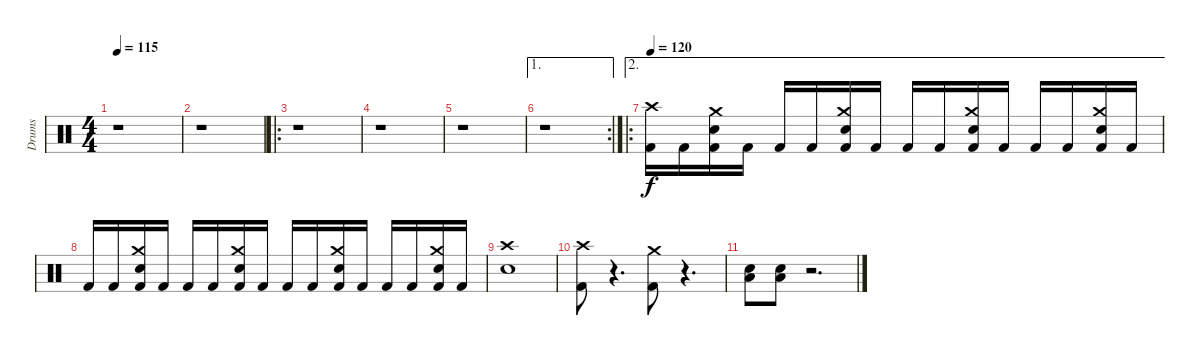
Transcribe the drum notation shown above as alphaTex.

\track ("Drums" "Drums") {instrument percussion}
\staff {score}
\articulation defaults
\ts (4 4)
\tempo 115
\clef neutral
\ks c
r.1{dy f} |
r.1 |
\ro
r.1 |
r.1 |
r.1 |
\ae 1
\rc 2
r.1 |
\ae 2
\ro
\tempo 120
("Kick (hit) 2" "Crash high (hit)").16 "Kick (hit) 2".16 ("Kick (hit) 2" "Crash medium (hit)" "Electric Snare (hit)").16 "Kick (hit) 2".16 "Kick (hit) 2".16 "Kick (hit) 2".16 ("Kick (hit) 2" "Crash medium (hit)" "Electric Snare (hit)").16 "Kick (hit) 2".16 "Kick (hit) 2".16 "Kick (hit) 2".16 ("Kick (hit) 2" "Crash medium (hit)" "Electric Snare (hit)").16 "Kick (hit) 2".16 "Kick (hit) 2".16 "Kick (hit) 2".16 ("Kick (hit) 2" "Crash medium (hit)" "Electric Snare (hit)").16 "Kick (hit) 2".16 |
"Kick (hit) 2".16 "Kick (hit) 2".16 ("Kick (hit) 2" "Crash medium (hit)" "Electric Snare (hit)").16 "Kick (hit) 2".16 "Kick (hit) 2".16 "Kick (hit) 2".16 ("Kick (hit) 2" "Crash medium (hit)" "Electric Snare (hit)").16 "Kick (hit) 2".16 "Kick (hit) 2".16 "Kick (hit) 2".16 ("Kick (hit) 2" "Crash medium (hit)" "Electric Snare (hit)").16 "Kick (hit) 2".16 "Kick (hit) 2".16 "Kick (hit) 2".16 ("Kick (hit) 2" "Crash medium (hit)" "Electric Snare (hit)").16 "Kick (hit) 2".16 |
("Crash high (hit)" "Electric Snare (hit)").1 |
("Kick (hit) 2" "Crash high (hit)").8 r.4{d} ("Kick (hit) 2" "Crash medium (hit)").8 r.4{d} |
("Low Floor Tom (hit)" "Electric Snare (hit)").8 ("Low Floor Tom (hit)" "Electric Snare (hit)").8 r.2{d}
